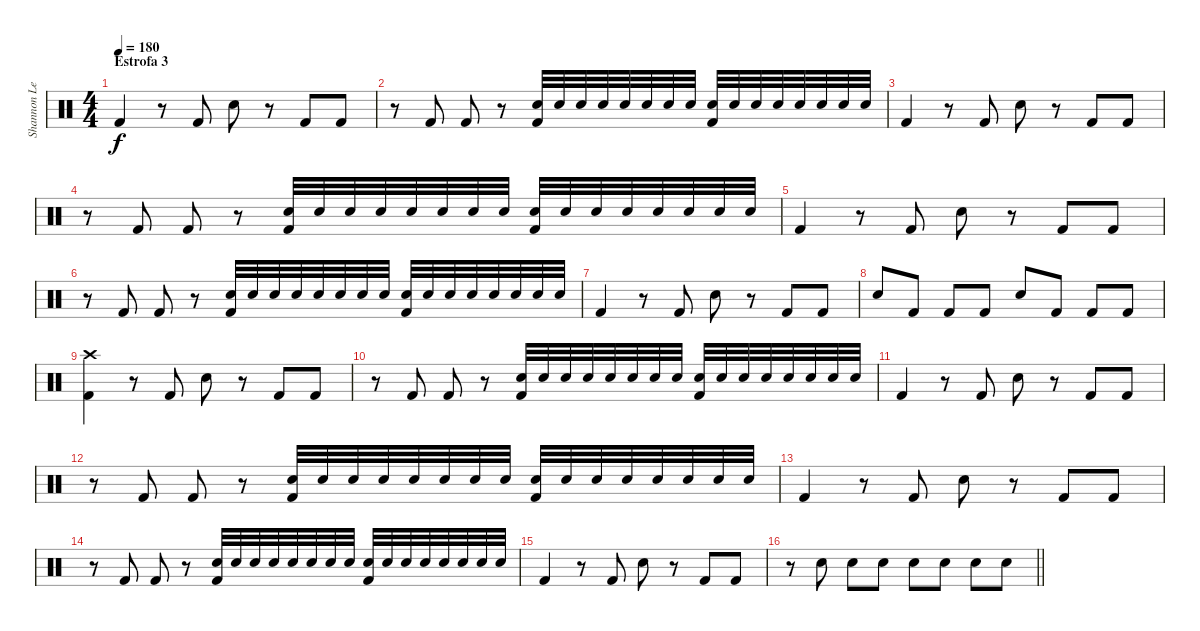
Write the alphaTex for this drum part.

\track ("Shannon Leto" "Shannon Le") {instrument percussion}
\staff {score}
\articulation defaults
\ts (4 4)
\section ("" "Estrofa 3")
\tempo 180
\clef neutral
\ks c "Kick (hit) 2".4{dy f}
r.8 "Kick (hit) 2".8 "Snare (hit) 2".8 r.8 "Kick (hit) 2".8 "Kick (hit) 2".8 |
r.8 "Kick (hit) 2".8 "Kick (hit) 2".8 r.8 ("Snare (hit) 2" "Kick (hit) 2").32 "Snare (hit) 2".32 "Snare (hit) 2".32 "Snare (hit) 2".32 "Snare (hit) 2".32 "Snare (hit) 2".32 "Snare (hit) 2".32 "Snare (hit) 2".32 ("Snare (hit) 2" "Kick (hit) 2").32 "Snare (hit) 2".32 "Snare (hit) 2".32 "Snare (hit) 2".32 "Snare (hit) 2".32 "Snare (hit) 2".32 "Snare (hit) 2".32 "Snare (hit) 2".32 |
"Kick (hit) 2".4 r.8 "Kick (hit) 2".8 "Snare (hit) 2".8 r.8 "Kick (hit) 2".8 "Kick (hit) 2".8 |
r.8 "Kick (hit) 2".8 "Kick (hit) 2".8 r.8 ("Snare (hit) 2" "Kick (hit) 2").32 "Snare (hit) 2".32 "Snare (hit) 2".32 "Snare (hit) 2".32 "Snare (hit) 2".32 "Snare (hit) 2".32 "Snare (hit) 2".32 "Snare (hit) 2".32 ("Snare (hit) 2" "Kick (hit) 2").32 "Snare (hit) 2".32 "Snare (hit) 2".32 "Snare (hit) 2".32 "Snare (hit) 2".32 "Snare (hit) 2".32 "Snare (hit) 2".32 "Snare (hit) 2".32 |
"Kick (hit) 2".4 r.8 "Kick (hit) 2".8 "Snare (hit) 2".8 r.8 "Kick (hit) 2".8 "Kick (hit) 2".8 |
r.8 "Kick (hit) 2".8 "Kick (hit) 2".8 r.8 ("Snare (hit) 2" "Kick (hit) 2").32 "Snare (hit) 2".32 "Snare (hit) 2".32 "Snare (hit) 2".32 "Snare (hit) 2".32 "Snare (hit) 2".32 "Snare (hit) 2".32 "Snare (hit) 2".32 ("Snare (hit) 2" "Kick (hit) 2").32 "Snare (hit) 2".32 "Snare (hit) 2".32 "Snare (hit) 2".32 "Snare (hit) 2".32 "Snare (hit) 2".32 "Snare (hit) 2".32 "Snare (hit) 2".32 |
"Kick (hit) 2".4 r.8 "Kick (hit) 2".8 "Snare (hit) 2".8 r.8 "Kick (hit) 2".8 "Kick (hit) 2".8 |
"Snare (hit) 2".8 "Kick (hit) 2".8 "Kick (hit) 2".8 "Kick (hit) 2".8 "Snare (hit) 2".8 "Kick (hit) 2".8 "Kick (hit) 2".8 "Kick (hit) 2".8 |
("Crash high (hit)" "Kick (hit) 2").4 r.8 "Kick (hit) 2".8 "Snare (hit) 2".8 r.8 "Kick (hit) 2".8 "Kick (hit) 2".8 |
r.8 "Kick (hit) 2".8 "Kick (hit) 2".8 r.8 ("Snare (hit) 2" "Kick (hit) 2").32 "Snare (hit) 2".32 "Snare (hit) 2".32 "Snare (hit) 2".32 "Snare (hit) 2".32 "Snare (hit) 2".32 "Snare (hit) 2".32 "Snare (hit) 2".32 ("Snare (hit) 2" "Kick (hit) 2").32 "Snare (hit) 2".32 "Snare (hit) 2".32 "Snare (hit) 2".32 "Snare (hit) 2".32 "Snare (hit) 2".32 "Snare (hit) 2".32 "Snare (hit) 2".32 |
"Kick (hit) 2".4 r.8 "Kick (hit) 2".8 "Snare (hit) 2".8 r.8 "Kick (hit) 2".8 "Kick (hit) 2".8 |
r.8 "Kick (hit) 2".8 "Kick (hit) 2".8 r.8 ("Snare (hit) 2" "Kick (hit) 2").32 "Snare (hit) 2".32 "Snare (hit) 2".32 "Snare (hit) 2".32 "Snare (hit) 2".32 "Snare (hit) 2".32 "Snare (hit) 2".32 "Snare (hit) 2".32 ("Snare (hit) 2" "Kick (hit) 2").32 "Snare (hit) 2".32 "Snare (hit) 2".32 "Snare (hit) 2".32 "Snare (hit) 2".32 "Snare (hit) 2".32 "Snare (hit) 2".32 "Snare (hit) 2".32 |
"Kick (hit) 2".4 r.8 "Kick (hit) 2".8 "Snare (hit) 2".8 r.8 "Kick (hit) 2".8 "Kick (hit) 2".8 |
r.8 "Kick (hit) 2".8 "Kick (hit) 2".8 r.8 ("Snare (hit) 2" "Kick (hit) 2").32 "Snare (hit) 2".32 "Snare (hit) 2".32 "Snare (hit) 2".32 "Snare (hit) 2".32 "Snare (hit) 2".32 "Snare (hit) 2".32 "Snare (hit) 2".32 ("Snare (hit) 2" "Kick (hit) 2").32 "Snare (hit) 2".32 "Snare (hit) 2".32 "Snare (hit) 2".32 "Snare (hit) 2".32 "Snare (hit) 2".32 "Snare (hit) 2".32 "Snare (hit) 2".32 |
"Kick (hit) 2".4 r.8 "Kick (hit) 2".8 "Snare (hit) 2".8 r.8 "Kick (hit) 2".8 "Kick (hit) 2".8 |
\barLineRight lightlight
r.8 "Snare (hit) 2".8 "Snare (hit) 2".8 "Snare (hit) 2".8 "Snare (hit) 2".8 "Snare (hit) 2".8 "Snare (hit) 2".8 "Snare (hit) 2".8
